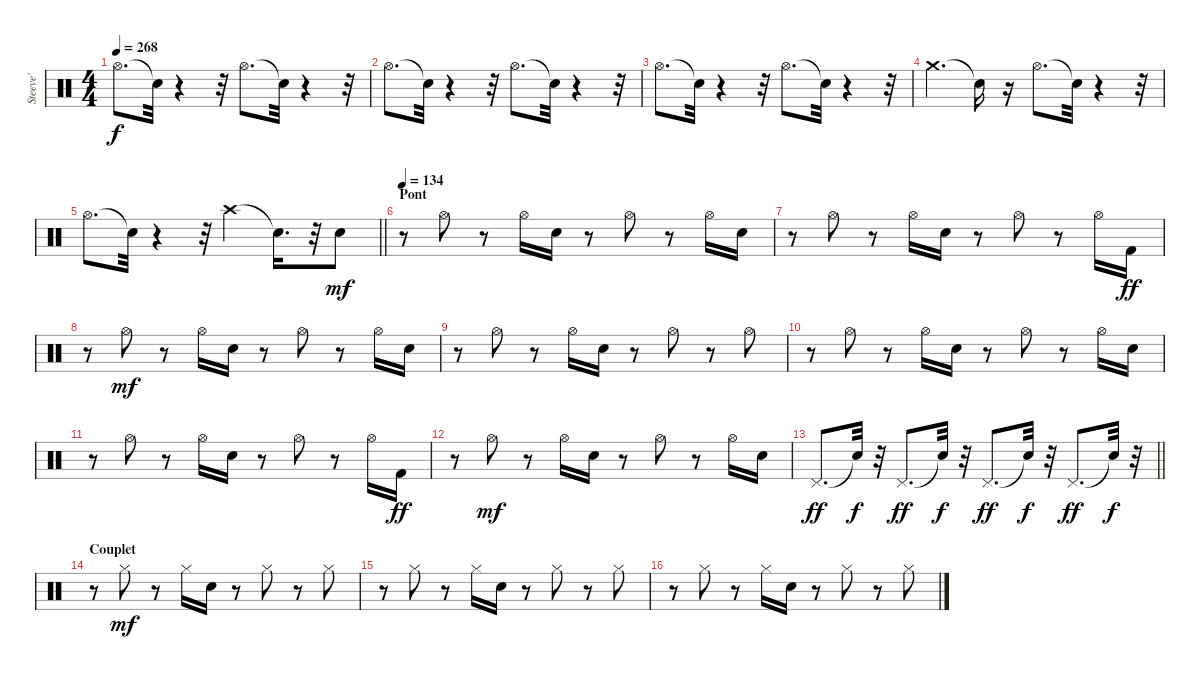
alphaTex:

\track ("Steeve'" "Steeve'") {instrument percussion}
\staff {score}
\articulation defaults
\ts (4 4)
\tempo 268
\clef neutral
\ks c "Hi-Hat (open)".8{d dy f} "Snare (hit)"{t}.32
r.4 r.32 "Hi-Hat (open)".8{d} "Snare (hit)"{t}.32 r.4 r.32 |
"Hi-Hat (open)".8{d} "Snare (hit)"{t}.32 r.4 r.32 "Hi-Hat (open)".8{d} "Snare (hit)"{t}.32 r.4 r.32 |
"Hi-Hat (open)".8{d} "Snare (hit)"{t}.32 r.4 r.32 "Hi-Hat (open)".8{d} "Snare (hit)"{t}.32 r.4 r.32 |
"Crash medium (hit)".4{d} "Snare (hit)"{t}.16 r.16 "Hi-Hat (open)".8{d} "Snare (hit)"{t}.32 r.4 r.32 |
\barLineRight lightlight "Hi-Hat (open)".8{d} "Snare (hit)"{t}.32
r.4 r.32 "Crash high (hit)".4 "Snare (hit)"{t}.16{d} r.32 "Electric Snare (hit)".8{dy mf} |
\section ("" "Pont")
\tempo 134
r.8 "Hi-Hat (open)".8 r.8 "Hi-Hat (open)".16 "Electric Snare (hit)".16 r.8 "Hi-Hat (open)".8 r.8 "Hi-Hat (open)".16 "Electric Snare (hit)".16 |
r.8 "Hi-Hat (open)".8 r.8 "Hi-Hat (open)".16 "Electric Snare (hit)".16 r.8 "Hi-Hat (open)".8 r.8 "Hi-Hat (open)".16 "Kick (hit) 2".16{dy ff} |
r.8 "Hi-Hat (open)".8{dy mf} r.8 "Hi-Hat (open)".16 "Electric Snare (hit)".16 r.8 "Hi-Hat (open)".8 r.8 "Hi-Hat (open)".16 "Electric Snare (hit)".16 |
r.8 "Hi-Hat (open)".8 r.8 "Hi-Hat (open)".16 "Electric Snare (hit)".16 r.8 "Hi-Hat (open)".8 r.8 "Hi-Hat (open)".8 |
r.8 "Hi-Hat (open)".8 r.8 "Hi-Hat (open)".16 "Electric Snare (hit)".16 r.8 "Hi-Hat (open)".8 r.8 "Hi-Hat (open)".16 "Electric Snare (hit)".16 |
r.8 "Hi-Hat (open)".8 r.8 "Hi-Hat (open)".16 "Electric Snare (hit)".16 r.8 "Hi-Hat (open)".8 r.8 "Hi-Hat (open)".16 "Kick (hit) 2".16{dy ff} |
r.8 "Hi-Hat (open)".8{dy mf} r.8 "Hi-Hat (open)".16 "Electric Snare (hit)".16 r.8 "Hi-Hat (open)".8 r.8 "Hi-Hat (open)".16 "Electric Snare (hit)".16 |
\barLineRight lightlight "Pedal Hi-Hat (hit)".8{d dy ff} "Snare (hit)"{t}.32{dy f}
r.32 "Pedal Hi-Hat (hit)".8{d dy ff} "Snare (hit)"{t}.32{dy f} r.32 "Pedal Hi-Hat (hit)".8{d dy ff} "Snare (hit)"{t}.32{dy f} r.32 "Pedal Hi-Hat (hit)".8{d dy ff} "Snare (hit)"{t}.32{dy f} r.32 |
\section ("" "Couplet")
r.8 "Hi-Hat (closed)".8{dy mf} r.8 "Hi-Hat (closed)".16 "Electric Snare (hit)".16 r.8 "Hi-Hat (closed)".8 r.8 "Hi-Hat (closed)".8 |
r.8 "Hi-Hat (closed)".8 r.8 "Hi-Hat (closed)".16 "Electric Snare (hit)".16 r.8 "Hi-Hat (closed)".8 r.8 "Hi-Hat (closed)".8 |
r.8 "Hi-Hat (closed)".8 r.8 "Hi-Hat (closed)".16 "Electric Snare (hit)".16 r.8 "Hi-Hat (closed)".8 r.8 "Hi-Hat (closed)".8
